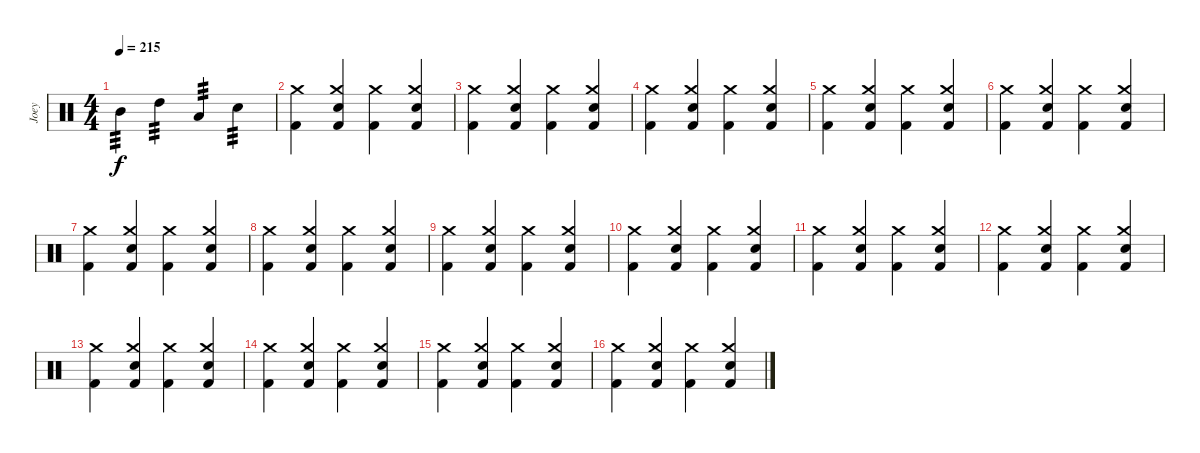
\track ("Joey" "Joey") {instrument percussion}
\staff {score}
\articulation defaults
\ts (4 4)
\tempo 215
\clef neutral
\ks c "Mid Tom (hit)".4{tp 3 dy f} "High Tom (hit)".4{tp 3} "Low Tom (hit)".4{tp 3} "Electric Snare (hit)".4{tp 3}
|
("Crash medium (hit)" "Kick (hit) 2").4 ("Crash medium (hit)" "Electric Snare (hit)" "Kick (hit) 2").4 ("Crash medium (hit)" "Kick (hit) 2").4 ("Crash medium (hit)" "Electric Snare (hit)" "Kick (hit) 2").4 |
("Crash medium (hit)" "Kick (hit) 2").4 ("Crash medium (hit)" "Electric Snare (hit)" "Kick (hit) 2").4 ("Crash medium (hit)" "Kick (hit) 2").4 ("Crash medium (hit)" "Electric Snare (hit)" "Kick (hit) 2").4 |
("Crash medium (hit)" "Kick (hit) 2").4 ("Crash medium (hit)" "Electric Snare (hit)" "Kick (hit) 2").4 ("Crash medium (hit)" "Kick (hit) 2").4 ("Crash medium (hit)" "Electric Snare (hit)" "Kick (hit) 2").4 |
("Crash medium (hit)" "Kick (hit) 2").4 ("Crash medium (hit)" "Electric Snare (hit)" "Kick (hit) 2").4 ("Crash medium (hit)" "Kick (hit) 2").4 ("Crash medium (hit)" "Electric Snare (hit)" "Kick (hit) 2").4 |
("Crash medium (hit)" "Kick (hit) 2").4 ("Crash medium (hit)" "Electric Snare (hit)" "Kick (hit) 2").4 ("Crash medium (hit)" "Kick (hit) 2").4 ("Crash medium (hit)" "Electric Snare (hit)" "Kick (hit) 2").4 |
("Crash medium (hit)" "Kick (hit) 2").4 ("Crash medium (hit)" "Electric Snare (hit)" "Kick (hit) 2").4 ("Crash medium (hit)" "Kick (hit) 2").4 ("Crash medium (hit)" "Electric Snare (hit)" "Kick (hit) 2").4 |
("Crash medium (hit)" "Kick (hit) 2").4 ("Crash medium (hit)" "Electric Snare (hit)" "Kick (hit) 2").4 ("Crash medium (hit)" "Kick (hit) 2").4 ("Crash medium (hit)" "Electric Snare (hit)" "Kick (hit) 2").4 |
("Crash medium (hit)" "Kick (hit) 2").4 ("Crash medium (hit)" "Electric Snare (hit)" "Kick (hit) 2").4 ("Crash medium (hit)" "Kick (hit) 2").4 ("Crash medium (hit)" "Electric Snare (hit)" "Kick (hit) 2").4 |
("Crash medium (hit)" "Kick (hit) 2").4 ("Crash medium (hit)" "Electric Snare (hit)" "Kick (hit) 2").4 ("Crash medium (hit)" "Kick (hit) 2").4 ("Crash medium (hit)" "Electric Snare (hit)" "Kick (hit) 2").4 |
("Crash medium (hit)" "Kick (hit) 2").4 ("Crash medium (hit)" "Electric Snare (hit)" "Kick (hit) 2").4 ("Crash medium (hit)" "Kick (hit) 2").4 ("Crash medium (hit)" "Electric Snare (hit)" "Kick (hit) 2").4 |
("Crash medium (hit)" "Kick (hit) 2").4 ("Crash medium (hit)" "Electric Snare (hit)" "Kick (hit) 2").4 ("Crash medium (hit)" "Kick (hit) 2").4 ("Crash medium (hit)" "Electric Snare (hit)" "Kick (hit) 2").4 |
("Crash medium (hit)" "Kick (hit) 2").4 ("Crash medium (hit)" "Electric Snare (hit)" "Kick (hit) 2").4 ("Crash medium (hit)" "Kick (hit) 2").4 ("Crash medium (hit)" "Electric Snare (hit)" "Kick (hit) 2").4 |
("Crash medium (hit)" "Kick (hit) 2").4 ("Crash medium (hit)" "Electric Snare (hit)" "Kick (hit) 2").4 ("Crash medium (hit)" "Kick (hit) 2").4 ("Crash medium (hit)" "Electric Snare (hit)" "Kick (hit) 2").4 |
("Crash medium (hit)" "Kick (hit) 2").4 ("Crash medium (hit)" "Electric Snare (hit)" "Kick (hit) 2").4 ("Crash medium (hit)" "Kick (hit) 2").4 ("Crash medium (hit)" "Electric Snare (hit)" "Kick (hit) 2").4 |
("Crash medium (hit)" "Kick (hit) 2").4 ("Crash medium (hit)" "Electric Snare (hit)" "Kick (hit) 2").4 ("Crash medium (hit)" "Kick (hit) 2").4 ("Crash medium (hit)" "Electric Snare (hit)" "Kick (hit) 2").4
